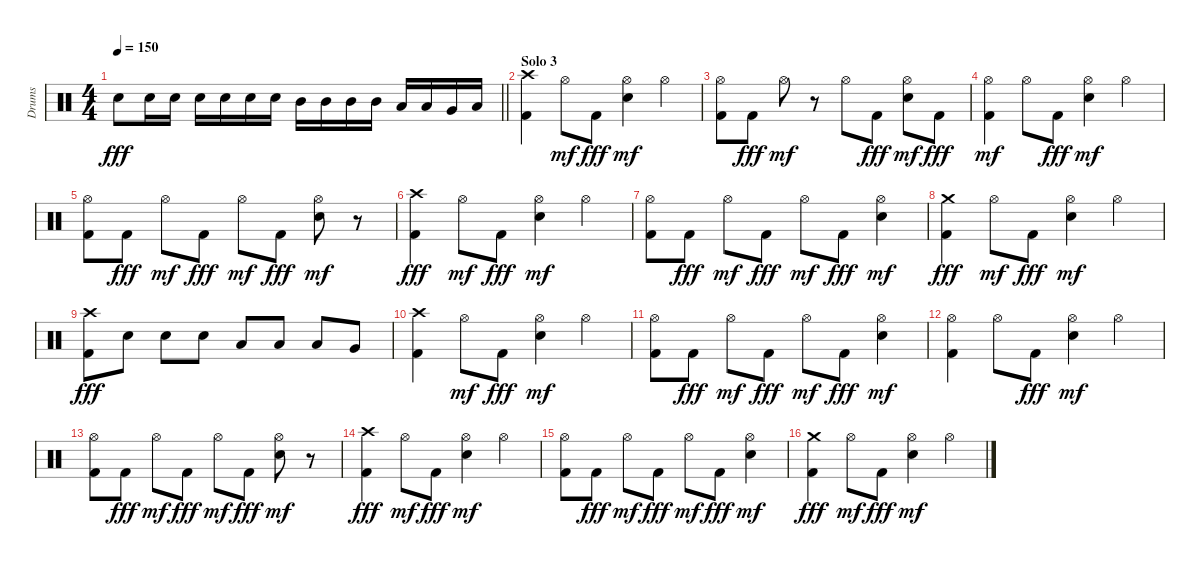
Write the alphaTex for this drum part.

\track ("Drums" "Drums") {instrument percussion}
\staff {score}
\articulation defaults
\ts (4 4)
\tempo 150
\clef neutral
\barLineRight lightlight
\ks c "Electric Snare (hit)".8{dy fff} "Electric Snare (hit)".16 "Electric Snare (hit)".16 "Electric Snare (hit)".16 "Electric Snare (hit)".16 "Electric Snare (hit)".16 "Electric Snare (hit)".16 "Mid Tom (hit)".16 "Mid Tom (hit)".16 "Mid Tom (hit)".16 "Mid Tom (hit)".16 "Low Tom (hit)".16 "Low Tom (hit)".16 "Very Low Tom (hit)".16 "Low Floor Tom (hit)".16
|
\section ("" "Solo 3")
("Kick (hit) 2" "Crash high (hit)").4 "Hi-Hat (open)".8{dy mf} "Kick (hit) 2".8{dy fff} ("Electric Snare (hit)" "Hi-Hat (open)").4{dy mf} "Hi-Hat (open)".4 |
("Kick (hit) 2" "Hi-Hat (open)").8 "Kick (hit) 2".8{dy fff} "Hi-Hat (open)".8{dy mf} r.8 "Hi-Hat (open)".8 "Kick (hit) 2".8{dy fff} ("Electric Snare (hit)" "Hi-Hat (open)").8{dy mf} "Kick (hit) 2".8{dy fff} |
("Kick (hit) 2" "Hi-Hat (open)").4{dy mf} "Hi-Hat (open)".8 "Kick (hit) 2".8{dy fff} ("Electric Snare (hit)" "Hi-Hat (open)").4{dy mf} "Hi-Hat (open)".4 |
("Kick (hit) 2" "Hi-Hat (open)").8 "Kick (hit) 2".8{dy fff} "Hi-Hat (open)".8{dy mf} "Kick (hit) 2".8{dy fff} "Hi-Hat (open)".8{dy mf} "Kick (hit) 2".8{dy fff} ("Electric Snare (hit)" "Hi-Hat (open)").8{dy mf} r.8 |
("Kick (hit) 2" "Crash high (hit)").4{dy fff} "Hi-Hat (open)".8{dy mf} "Kick (hit) 2".8{dy fff} ("Electric Snare (hit)" "Hi-Hat (open)").4{dy mf} "Hi-Hat (open)".4 |
("Kick (hit) 2" "Hi-Hat (open)").8 "Kick (hit) 2".8{dy fff} "Hi-Hat (open)".8{dy mf} "Kick (hit) 2".8{dy fff} "Hi-Hat (open)".8{dy mf} "Kick (hit) 2".8{dy fff} ("Electric Snare (hit)" "Hi-Hat (open)").4{dy mf} |
("Kick (hit) 2" "Crash medium (hit)").4{dy fff} "Hi-Hat (open)".8{dy mf} "Kick (hit) 2".8{dy fff} ("Electric Snare (hit)" "Hi-Hat (open)").4{dy mf} "Hi-Hat (open)".4 |
("Kick (hit) 2" "Crash high (hit)").8{dy fff} "Electric Snare (hit)".8 "Electric Snare (hit)".8 "Electric Snare (hit)".8 "Low Tom (hit)".8 "Low Tom (hit)".8 "Low Tom (hit)".8 "Very Low Tom (hit)".8 |
("Kick (hit) 2" "Crash high (hit)").4 "Hi-Hat (open)".8{dy mf} "Kick (hit) 2".8{dy fff} ("Electric Snare (hit)" "Hi-Hat (open)").4{dy mf} "Hi-Hat (open)".4 |
("Kick (hit) 2" "Hi-Hat (open)").8 "Kick (hit) 2".8{dy fff} "Hi-Hat (open)".8{dy mf} "Kick (hit) 2".8{dy fff} "Hi-Hat (open)".8{dy mf} "Kick (hit) 2".8{dy fff} ("Electric Snare (hit)" "Hi-Hat (open)").4{dy mf} |
("Kick (hit) 2" "Hi-Hat (open)").4 "Hi-Hat (open)".8 "Kick (hit) 2".8{dy fff} ("Electric Snare (hit)" "Hi-Hat (open)").4{dy mf} "Hi-Hat (open)".4 |
("Kick (hit) 2" "Hi-Hat (open)").8 "Kick (hit) 2".8{dy fff} "Hi-Hat (open)".8{dy mf} "Kick (hit) 2".8{dy fff} "Hi-Hat (open)".8{dy mf} "Kick (hit) 2".8{dy fff} ("Electric Snare (hit)" "Hi-Hat (open)").8{dy mf} r.8 |
("Kick (hit) 2" "Crash high (hit)").4{dy fff} "Hi-Hat (open)".8{dy mf} "Kick (hit) 2".8{dy fff} ("Electric Snare (hit)" "Hi-Hat (open)").4{dy mf} "Hi-Hat (open)".4 |
("Kick (hit) 2" "Hi-Hat (open)").8 "Kick (hit) 2".8{dy fff} "Hi-Hat (open)".8{dy mf} "Kick (hit) 2".8{dy fff} "Hi-Hat (open)".8{dy mf} "Kick (hit) 2".8{dy fff} ("Electric Snare (hit)" "Hi-Hat (open)").4{dy mf} |
("Kick (hit) 2" "Crash medium (hit)").4{dy fff} "Hi-Hat (open)".8{dy mf} "Kick (hit) 2".8{dy fff} ("Electric Snare (hit)" "Hi-Hat (open)").4{dy mf} "Hi-Hat (open)".4
